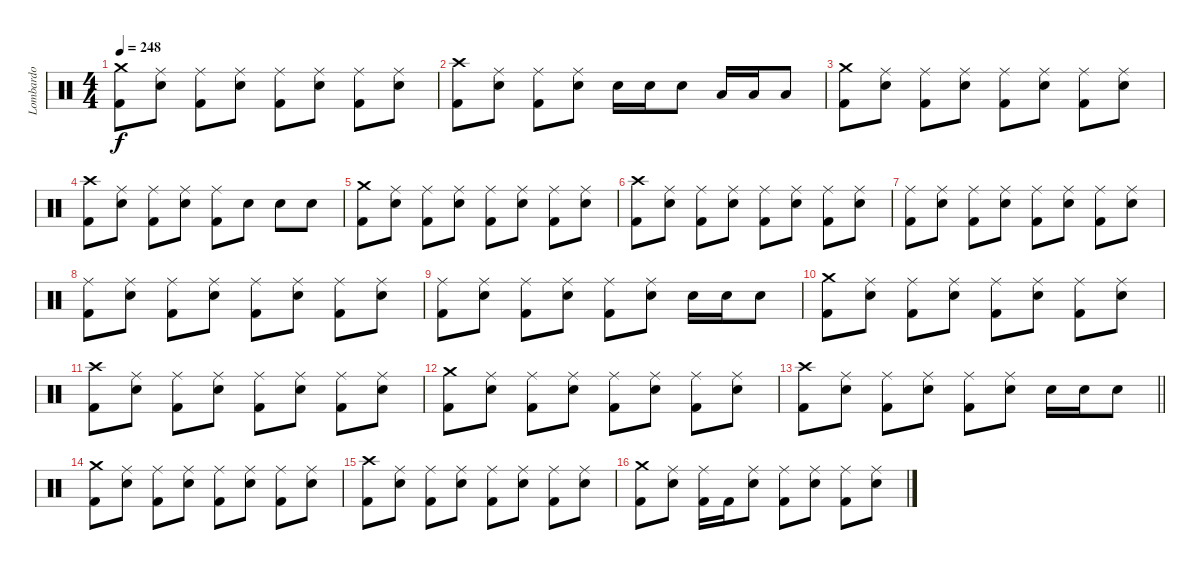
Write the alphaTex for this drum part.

\track ("Lombardo" "Lombardo") {instrument percussion}
\staff {score}
\articulation defaults
\ts (4 4)
\tempo 248
\clef neutral
\ks c
("Crash medium (hit)" "Kick (hit) 2").8{dy f} ("Ride (middle)" "Snare (hit) 2").8 ("Ride (middle)" "Kick (hit) 2").8 ("Ride (middle)" "Snare (hit) 2").8 ("Ride (middle)" "Kick (hit) 2").8 ("Ride (middle)" "Snare (hit) 2").8 ("Ride (middle)" "Kick (hit) 2").8 ("Ride (middle)" "Snare (hit) 2").8 |
("Crash high (hit)" "Kick (hit) 2").8 ("Ride (middle)" "Snare (hit) 2").8 ("Ride (middle)" "Kick (hit) 2").8 ("Ride (middle)" "Snare (hit) 2").8 "Snare (hit) 2".16 "Snare (hit) 2".16 "Snare (hit) 2".8 "Low Tom (hit)".16 "Low Tom (hit)".16 "Low Tom (hit)".8 |
("Crash medium (hit)" "Kick (hit) 2").8 ("Ride (middle)" "Snare (hit) 2").8 ("Ride (middle)" "Kick (hit) 2").8 ("Ride (middle)" "Snare (hit) 2").8 ("Ride (middle)" "Kick (hit) 2").8 ("Ride (middle)" "Snare (hit) 2").8 ("Ride (middle)" "Kick (hit) 2").8 ("Ride (middle)" "Snare (hit) 2").8 |
("Crash high (hit)" "Kick (hit) 2").8 ("Ride (middle)" "Snare (hit) 2").8 ("Ride (middle)" "Kick (hit) 2").8 ("Ride (middle)" "Snare (hit) 2").8 ("Ride (middle)" "Kick (hit) 2").8 "Snare (hit) 2".8 "Snare (hit) 2".8 "Snare (hit) 2".8 |
("Crash medium (hit)" "Kick (hit) 2").8 ("Ride (middle)" "Snare (hit) 2").8 ("Ride (middle)" "Kick (hit) 2").8 ("Ride (middle)" "Snare (hit) 2").8 ("Ride (middle)" "Kick (hit) 2").8 ("Ride (middle)" "Snare (hit) 2").8 ("Ride (middle)" "Kick (hit) 2").8 ("Ride (middle)" "Snare (hit) 2").8 |
("Crash high (hit)" "Kick (hit) 2").8 ("Ride (middle)" "Snare (hit) 2").8 ("Ride (middle)" "Kick (hit) 2").8 ("Ride (middle)" "Snare (hit) 2").8 ("Ride (middle)" "Kick (hit) 2").8 ("Ride (middle)" "Snare (hit) 2").8 ("Ride (middle)" "Kick (hit) 2").8 ("Ride (middle)" "Snare (hit) 2").8 |
("Ride (middle)" "Kick (hit) 2").8 ("Ride (middle)" "Snare (hit) 2").8 ("Ride (middle)" "Kick (hit) 2").8 ("Ride (middle)" "Snare (hit) 2").8 ("Ride (middle)" "Kick (hit) 2").8 ("Ride (middle)" "Snare (hit) 2").8 ("Ride (middle)" "Kick (hit) 2").8 ("Ride (middle)" "Snare (hit) 2").8 |
("Ride (middle)" "Kick (hit) 2").8 ("Ride (middle)" "Snare (hit) 2").8 ("Ride (middle)" "Kick (hit) 2").8 ("Ride (middle)" "Snare (hit) 2").8 ("Ride (middle)" "Kick (hit) 2").8 ("Ride (middle)" "Snare (hit) 2").8 ("Ride (middle)" "Kick (hit) 2").8 ("Ride (middle)" "Snare (hit) 2").8 |
("Ride (middle)" "Kick (hit) 2").8 ("Ride (middle)" "Snare (hit) 2").8 ("Ride (middle)" "Kick (hit) 2").8 ("Ride (middle)" "Snare (hit) 2").8 ("Ride (middle)" "Kick (hit) 2").8 ("Ride (middle)" "Snare (hit) 2").8 "Snare (hit) 2".16 "Snare (hit) 2".16 "Snare (hit) 2".8 |
("Crash medium (hit)" "Kick (hit) 2").8 ("Ride (middle)" "Snare (hit) 2").8 ("Ride (middle)" "Kick (hit) 2").8 ("Ride (middle)" "Snare (hit) 2").8 ("Ride (middle)" "Kick (hit) 2").8 ("Ride (middle)" "Snare (hit) 2").8 ("Ride (middle)" "Kick (hit) 2").8 ("Ride (middle)" "Snare (hit) 2").8 |
("Crash high (hit)" "Kick (hit) 2").8 ("Ride (middle)" "Snare (hit) 2").8 ("Ride (middle)" "Kick (hit) 2").8 ("Ride (middle)" "Snare (hit) 2").8 ("Ride (middle)" "Kick (hit) 2").8 ("Ride (middle)" "Snare (hit) 2").8 ("Ride (middle)" "Kick (hit) 2").8 ("Ride (middle)" "Snare (hit) 2").8 |
("Crash medium (hit)" "Kick (hit) 2").8 ("Ride (middle)" "Snare (hit) 2").8 ("Ride (middle)" "Kick (hit) 2").8 ("Ride (middle)" "Snare (hit) 2").8 ("Ride (middle)" "Kick (hit) 2").8 ("Ride (middle)" "Snare (hit) 2").8 ("Ride (middle)" "Kick (hit) 2").8 ("Ride (middle)" "Snare (hit) 2").8 |
\barLineRight lightlight
("Crash high (hit)" "Kick (hit) 2").8 ("Ride (middle)" "Snare (hit) 2").8 ("Ride (middle)" "Kick (hit) 2").8 ("Ride (middle)" "Snare (hit) 2").8 ("Ride (middle)" "Kick (hit) 2").8 ("Ride (middle)" "Snare (hit) 2").8 "Snare (hit) 2".16 "Snare (hit) 2".16 "Snare (hit) 2".8 |
("Crash medium (hit)" "Kick (hit) 2").8 ("Ride (middle)" "Snare (hit) 2").8 ("Ride (middle)" "Kick (hit) 2").8 ("Ride (middle)" "Snare (hit) 2").8 ("Ride (middle)" "Kick (hit) 2").8 ("Ride (middle)" "Snare (hit) 2").8 ("Ride (middle)" "Kick (hit) 2").8 ("Ride (middle)" "Snare (hit) 2").8 |
("Crash high (hit)" "Kick (hit) 2").8 ("Ride (middle)" "Snare (hit) 2").8 ("Ride (middle)" "Kick (hit) 2").8 ("Ride (middle)" "Snare (hit) 2").8 ("Ride (middle)" "Kick (hit) 2").8 ("Ride (middle)" "Snare (hit) 2").8 ("Ride (middle)" "Kick (hit) 2").8 ("Ride (middle)" "Snare (hit) 2").8 |
("Crash medium (hit)" "Kick (hit) 2").8 ("Ride (middle)" "Snare (hit) 2").8 ("Ride (middle)" "Kick (hit) 2").16 "Kick (hit) 2".16 ("Ride (middle)" "Snare (hit) 2").8 ("Ride (middle)" "Kick (hit) 2").8 ("Ride (middle)" "Snare (hit) 2").8 ("Ride (middle)" "Kick (hit) 2").8 ("Ride (middle)" "Snare (hit) 2").8
